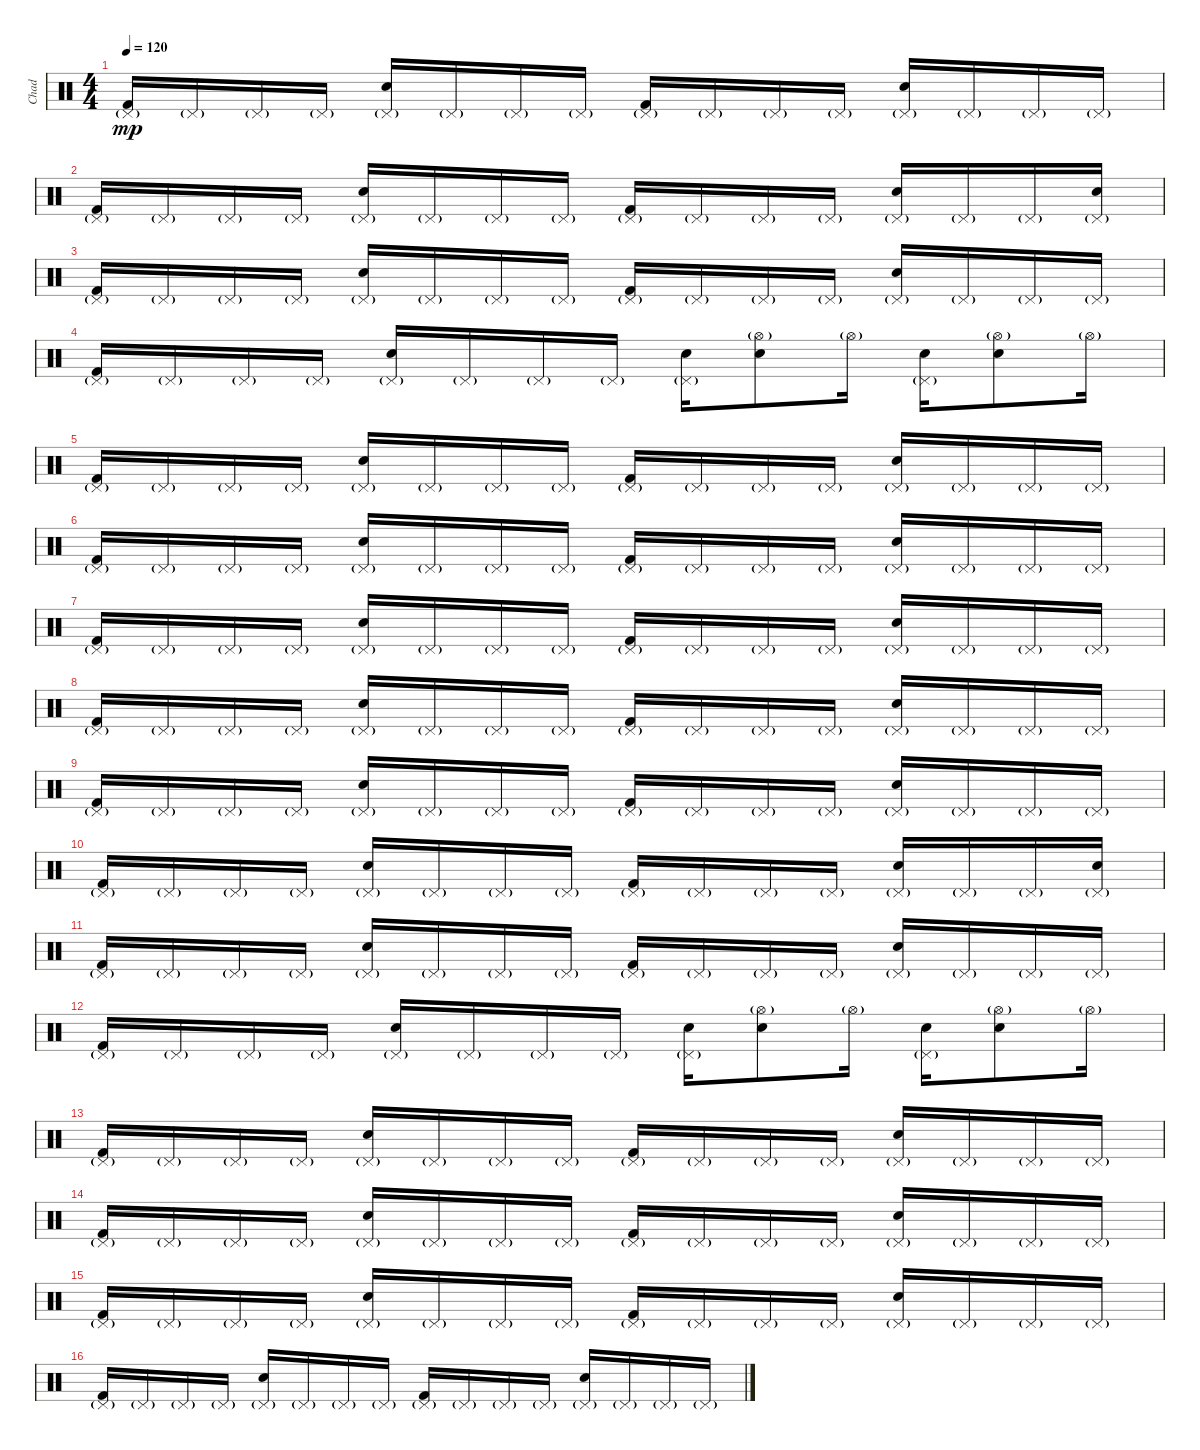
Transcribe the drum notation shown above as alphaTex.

\track ("Chad" "Chad") {instrument percussion}
\staff {score}
\articulation defaults
\ts (4 4)
\tempo 120
\clef neutral
\ks c
("Kick (hit) 2" "Pedal Hi-Hat (hit)"{g}).16{dy mp} "Pedal Hi-Hat (hit)"{g}.16 "Pedal Hi-Hat (hit)"{g}.16 "Pedal Hi-Hat (hit)"{g}.16 ("Electric Snare (hit)" "Pedal Hi-Hat (hit)"{g}).16 "Pedal Hi-Hat (hit)"{g}.16 "Pedal Hi-Hat (hit)"{g}.16 "Pedal Hi-Hat (hit)"{g}.16 ("Kick (hit) 2" "Pedal Hi-Hat (hit)"{g}).16 "Pedal Hi-Hat (hit)"{g}.16 "Pedal Hi-Hat (hit)"{g}.16 "Pedal Hi-Hat (hit)"{g}.16 ("Electric Snare (hit)" "Pedal Hi-Hat (hit)"{g}).16 "Pedal Hi-Hat (hit)"{g}.16 "Pedal Hi-Hat (hit)"{g}.16 "Pedal Hi-Hat (hit)"{g}.16 |
("Kick (hit) 2" "Pedal Hi-Hat (hit)"{g}).16 "Pedal Hi-Hat (hit)"{g}.16 "Pedal Hi-Hat (hit)"{g}.16 "Pedal Hi-Hat (hit)"{g}.16 ("Electric Snare (hit)" "Pedal Hi-Hat (hit)"{g}).16 "Pedal Hi-Hat (hit)"{g}.16 "Pedal Hi-Hat (hit)"{g}.16 "Pedal Hi-Hat (hit)"{g}.16 ("Kick (hit) 2" "Pedal Hi-Hat (hit)"{g}).16 "Pedal Hi-Hat (hit)"{g}.16 "Pedal Hi-Hat (hit)"{g}.16 "Pedal Hi-Hat (hit)"{g}.16 ("Electric Snare (hit)" "Pedal Hi-Hat (hit)"{g}).16 "Pedal Hi-Hat (hit)"{g}.16 "Pedal Hi-Hat (hit)"{g}.16 ("Electric Snare (hit)" "Pedal Hi-Hat (hit)"{g}).16 |
("Kick (hit) 2" "Pedal Hi-Hat (hit)"{g}).16 "Pedal Hi-Hat (hit)"{g}.16 "Pedal Hi-Hat (hit)"{g}.16 "Pedal Hi-Hat (hit)"{g}.16 ("Electric Snare (hit)" "Pedal Hi-Hat (hit)"{g}).16 "Pedal Hi-Hat (hit)"{g}.16 "Pedal Hi-Hat (hit)"{g}.16 "Pedal Hi-Hat (hit)"{g}.16 ("Kick (hit) 2" "Pedal Hi-Hat (hit)"{g}).16 "Pedal Hi-Hat (hit)"{g}.16 "Pedal Hi-Hat (hit)"{g}.16 "Pedal Hi-Hat (hit)"{g}.16 ("Electric Snare (hit)" "Pedal Hi-Hat (hit)"{g}).16 "Pedal Hi-Hat (hit)"{g}.16 "Pedal Hi-Hat (hit)"{g}.16 "Pedal Hi-Hat (hit)"{g}.16 |
("Kick (hit) 2" "Pedal Hi-Hat (hit)"{g}).16 "Pedal Hi-Hat (hit)"{g}.16 "Pedal Hi-Hat (hit)"{g}.16 "Pedal Hi-Hat (hit)"{g}.16 ("Electric Snare (hit)" "Pedal Hi-Hat (hit)"{g}).16 "Pedal Hi-Hat (hit)"{g}.16 "Pedal Hi-Hat (hit)"{g}.16 "Pedal Hi-Hat (hit)"{g}.16 ("Electric Snare (hit)" "Pedal Hi-Hat (hit)"{g}).16 ("Electric Snare (hit)" "Hi-Hat (open)"{g}).8 "Hi-Hat (open)"{g}.16 ("Electric Snare (hit)" "Pedal Hi-Hat (hit)"{g}).16 ("Electric Snare (hit)" "Hi-Hat (open)"{g}).8 "Hi-Hat (open)"{g}.16 |
("Kick (hit) 2" "Pedal Hi-Hat (hit)"{g}).16 "Pedal Hi-Hat (hit)"{g}.16 "Pedal Hi-Hat (hit)"{g}.16 "Pedal Hi-Hat (hit)"{g}.16 ("Electric Snare (hit)" "Pedal Hi-Hat (hit)"{g}).16 "Pedal Hi-Hat (hit)"{g}.16 "Pedal Hi-Hat (hit)"{g}.16 "Pedal Hi-Hat (hit)"{g}.16 ("Kick (hit) 2" "Pedal Hi-Hat (hit)"{g}).16 "Pedal Hi-Hat (hit)"{g}.16 "Pedal Hi-Hat (hit)"{g}.16 "Pedal Hi-Hat (hit)"{g}.16 ("Electric Snare (hit)" "Pedal Hi-Hat (hit)"{g}).16 "Pedal Hi-Hat (hit)"{g}.16 "Pedal Hi-Hat (hit)"{g}.16 "Pedal Hi-Hat (hit)"{g}.16 |
("Kick (hit) 2" "Pedal Hi-Hat (hit)"{g}).16 "Pedal Hi-Hat (hit)"{g}.16 "Pedal Hi-Hat (hit)"{g}.16 "Pedal Hi-Hat (hit)"{g}.16 ("Electric Snare (hit)" "Pedal Hi-Hat (hit)"{g}).16 "Pedal Hi-Hat (hit)"{g}.16 "Pedal Hi-Hat (hit)"{g}.16 "Pedal Hi-Hat (hit)"{g}.16 ("Kick (hit) 2" "Pedal Hi-Hat (hit)"{g}).16 "Pedal Hi-Hat (hit)"{g}.16 "Pedal Hi-Hat (hit)"{g}.16 "Pedal Hi-Hat (hit)"{g}.16 ("Electric Snare (hit)" "Pedal Hi-Hat (hit)"{g}).16 "Pedal Hi-Hat (hit)"{g}.16 "Pedal Hi-Hat (hit)"{g}.16 "Pedal Hi-Hat (hit)"{g}.16 |
("Kick (hit) 2" "Pedal Hi-Hat (hit)"{g}).16 "Pedal Hi-Hat (hit)"{g}.16 "Pedal Hi-Hat (hit)"{g}.16 "Pedal Hi-Hat (hit)"{g}.16 ("Electric Snare (hit)" "Pedal Hi-Hat (hit)"{g}).16 "Pedal Hi-Hat (hit)"{g}.16 "Pedal Hi-Hat (hit)"{g}.16 "Pedal Hi-Hat (hit)"{g}.16 ("Kick (hit) 2" "Pedal Hi-Hat (hit)"{g}).16 "Pedal Hi-Hat (hit)"{g}.16 "Pedal Hi-Hat (hit)"{g}.16 "Pedal Hi-Hat (hit)"{g}.16 ("Electric Snare (hit)" "Pedal Hi-Hat (hit)"{g}).16 "Pedal Hi-Hat (hit)"{g}.16 "Pedal Hi-Hat (hit)"{g}.16 "Pedal Hi-Hat (hit)"{g}.16 |
("Kick (hit) 2" "Pedal Hi-Hat (hit)"{g}).16 "Pedal Hi-Hat (hit)"{g}.16 "Pedal Hi-Hat (hit)"{g}.16 "Pedal Hi-Hat (hit)"{g}.16 ("Electric Snare (hit)" "Pedal Hi-Hat (hit)"{g}).16 "Pedal Hi-Hat (hit)"{g}.16 "Pedal Hi-Hat (hit)"{g}.16 "Pedal Hi-Hat (hit)"{g}.16 ("Kick (hit) 2" "Pedal Hi-Hat (hit)"{g}).16 "Pedal Hi-Hat (hit)"{g}.16 "Pedal Hi-Hat (hit)"{g}.16 "Pedal Hi-Hat (hit)"{g}.16 ("Electric Snare (hit)" "Pedal Hi-Hat (hit)"{g}).16 "Pedal Hi-Hat (hit)"{g}.16 "Pedal Hi-Hat (hit)"{g}.16 "Pedal Hi-Hat (hit)"{g}.16 |
("Kick (hit) 2" "Pedal Hi-Hat (hit)"{g}).16 "Pedal Hi-Hat (hit)"{g}.16 "Pedal Hi-Hat (hit)"{g}.16 "Pedal Hi-Hat (hit)"{g}.16 ("Electric Snare (hit)" "Pedal Hi-Hat (hit)"{g}).16 "Pedal Hi-Hat (hit)"{g}.16 "Pedal Hi-Hat (hit)"{g}.16 "Pedal Hi-Hat (hit)"{g}.16 ("Kick (hit) 2" "Pedal Hi-Hat (hit)"{g}).16 "Pedal Hi-Hat (hit)"{g}.16 "Pedal Hi-Hat (hit)"{g}.16 "Pedal Hi-Hat (hit)"{g}.16 ("Electric Snare (hit)" "Pedal Hi-Hat (hit)"{g}).16 "Pedal Hi-Hat (hit)"{g}.16 "Pedal Hi-Hat (hit)"{g}.16 "Pedal Hi-Hat (hit)"{g}.16 |
("Kick (hit) 2" "Pedal Hi-Hat (hit)"{g}).16 "Pedal Hi-Hat (hit)"{g}.16 "Pedal Hi-Hat (hit)"{g}.16 "Pedal Hi-Hat (hit)"{g}.16 ("Electric Snare (hit)" "Pedal Hi-Hat (hit)"{g}).16 "Pedal Hi-Hat (hit)"{g}.16 "Pedal Hi-Hat (hit)"{g}.16 "Pedal Hi-Hat (hit)"{g}.16 ("Kick (hit) 2" "Pedal Hi-Hat (hit)"{g}).16 "Pedal Hi-Hat (hit)"{g}.16 "Pedal Hi-Hat (hit)"{g}.16 "Pedal Hi-Hat (hit)"{g}.16 ("Electric Snare (hit)" "Pedal Hi-Hat (hit)"{g}).16 "Pedal Hi-Hat (hit)"{g}.16 "Pedal Hi-Hat (hit)"{g}.16 ("Electric Snare (hit)" "Pedal Hi-Hat (hit)"{g}).16 |
("Kick (hit) 2" "Pedal Hi-Hat (hit)"{g}).16 "Pedal Hi-Hat (hit)"{g}.16 "Pedal Hi-Hat (hit)"{g}.16 "Pedal Hi-Hat (hit)"{g}.16 ("Electric Snare (hit)" "Pedal Hi-Hat (hit)"{g}).16 "Pedal Hi-Hat (hit)"{g}.16 "Pedal Hi-Hat (hit)"{g}.16 "Pedal Hi-Hat (hit)"{g}.16 ("Kick (hit) 2" "Pedal Hi-Hat (hit)"{g}).16 "Pedal Hi-Hat (hit)"{g}.16 "Pedal Hi-Hat (hit)"{g}.16 "Pedal Hi-Hat (hit)"{g}.16 ("Electric Snare (hit)" "Pedal Hi-Hat (hit)"{g}).16 "Pedal Hi-Hat (hit)"{g}.16 "Pedal Hi-Hat (hit)"{g}.16 "Pedal Hi-Hat (hit)"{g}.16 |
("Kick (hit) 2" "Pedal Hi-Hat (hit)"{g}).16 "Pedal Hi-Hat (hit)"{g}.16 "Pedal Hi-Hat (hit)"{g}.16 "Pedal Hi-Hat (hit)"{g}.16 ("Electric Snare (hit)" "Pedal Hi-Hat (hit)"{g}).16 "Pedal Hi-Hat (hit)"{g}.16 "Pedal Hi-Hat (hit)"{g}.16 "Pedal Hi-Hat (hit)"{g}.16 ("Electric Snare (hit)" "Pedal Hi-Hat (hit)"{g}).16 ("Electric Snare (hit)" "Hi-Hat (open)"{g}).8 "Hi-Hat (open)"{g}.16 ("Electric Snare (hit)" "Pedal Hi-Hat (hit)"{g}).16 ("Electric Snare (hit)" "Hi-Hat (open)"{g}).8 "Hi-Hat (open)"{g}.16 |
("Kick (hit) 2" "Pedal Hi-Hat (hit)"{g}).16 "Pedal Hi-Hat (hit)"{g}.16 "Pedal Hi-Hat (hit)"{g}.16 "Pedal Hi-Hat (hit)"{g}.16 ("Electric Snare (hit)" "Pedal Hi-Hat (hit)"{g}).16 "Pedal Hi-Hat (hit)"{g}.16 "Pedal Hi-Hat (hit)"{g}.16 "Pedal Hi-Hat (hit)"{g}.16 ("Kick (hit) 2" "Pedal Hi-Hat (hit)"{g}).16 "Pedal Hi-Hat (hit)"{g}.16 "Pedal Hi-Hat (hit)"{g}.16 "Pedal Hi-Hat (hit)"{g}.16 ("Electric Snare (hit)" "Pedal Hi-Hat (hit)"{g}).16 "Pedal Hi-Hat (hit)"{g}.16 "Pedal Hi-Hat (hit)"{g}.16 "Pedal Hi-Hat (hit)"{g}.16 |
("Kick (hit) 2" "Pedal Hi-Hat (hit)"{g}).16 "Pedal Hi-Hat (hit)"{g}.16 "Pedal Hi-Hat (hit)"{g}.16 "Pedal Hi-Hat (hit)"{g}.16 ("Electric Snare (hit)" "Pedal Hi-Hat (hit)"{g}).16 "Pedal Hi-Hat (hit)"{g}.16 "Pedal Hi-Hat (hit)"{g}.16 "Pedal Hi-Hat (hit)"{g}.16 ("Kick (hit) 2" "Pedal Hi-Hat (hit)"{g}).16 "Pedal Hi-Hat (hit)"{g}.16 "Pedal Hi-Hat (hit)"{g}.16 "Pedal Hi-Hat (hit)"{g}.16 ("Electric Snare (hit)" "Pedal Hi-Hat (hit)"{g}).16 "Pedal Hi-Hat (hit)"{g}.16 "Pedal Hi-Hat (hit)"{g}.16 "Pedal Hi-Hat (hit)"{g}.16 |
("Kick (hit) 2" "Pedal Hi-Hat (hit)"{g}).16 "Pedal Hi-Hat (hit)"{g}.16 "Pedal Hi-Hat (hit)"{g}.16 "Pedal Hi-Hat (hit)"{g}.16 ("Electric Snare (hit)" "Pedal Hi-Hat (hit)"{g}).16 "Pedal Hi-Hat (hit)"{g}.16 "Pedal Hi-Hat (hit)"{g}.16 "Pedal Hi-Hat (hit)"{g}.16 ("Kick (hit) 2" "Pedal Hi-Hat (hit)"{g}).16 "Pedal Hi-Hat (hit)"{g}.16 "Pedal Hi-Hat (hit)"{g}.16 "Pedal Hi-Hat (hit)"{g}.16 ("Electric Snare (hit)" "Pedal Hi-Hat (hit)"{g}).16 "Pedal Hi-Hat (hit)"{g}.16 "Pedal Hi-Hat (hit)"{g}.16 "Pedal Hi-Hat (hit)"{g}.16 |
("Kick (hit) 2" "Pedal Hi-Hat (hit)"{g}).16 "Pedal Hi-Hat (hit)"{g}.16 "Pedal Hi-Hat (hit)"{g}.16 "Pedal Hi-Hat (hit)"{g}.16 ("Electric Snare (hit)" "Pedal Hi-Hat (hit)"{g}).16 "Pedal Hi-Hat (hit)"{g}.16 "Pedal Hi-Hat (hit)"{g}.16 "Pedal Hi-Hat (hit)"{g}.16 ("Kick (hit) 2" "Pedal Hi-Hat (hit)"{g}).16 "Pedal Hi-Hat (hit)"{g}.16 "Pedal Hi-Hat (hit)"{g}.16 "Pedal Hi-Hat (hit)"{g}.16 ("Electric Snare (hit)" "Pedal Hi-Hat (hit)"{g}).16 "Pedal Hi-Hat (hit)"{g}.16 "Pedal Hi-Hat (hit)"{g}.16 "Pedal Hi-Hat (hit)"{g}.16
